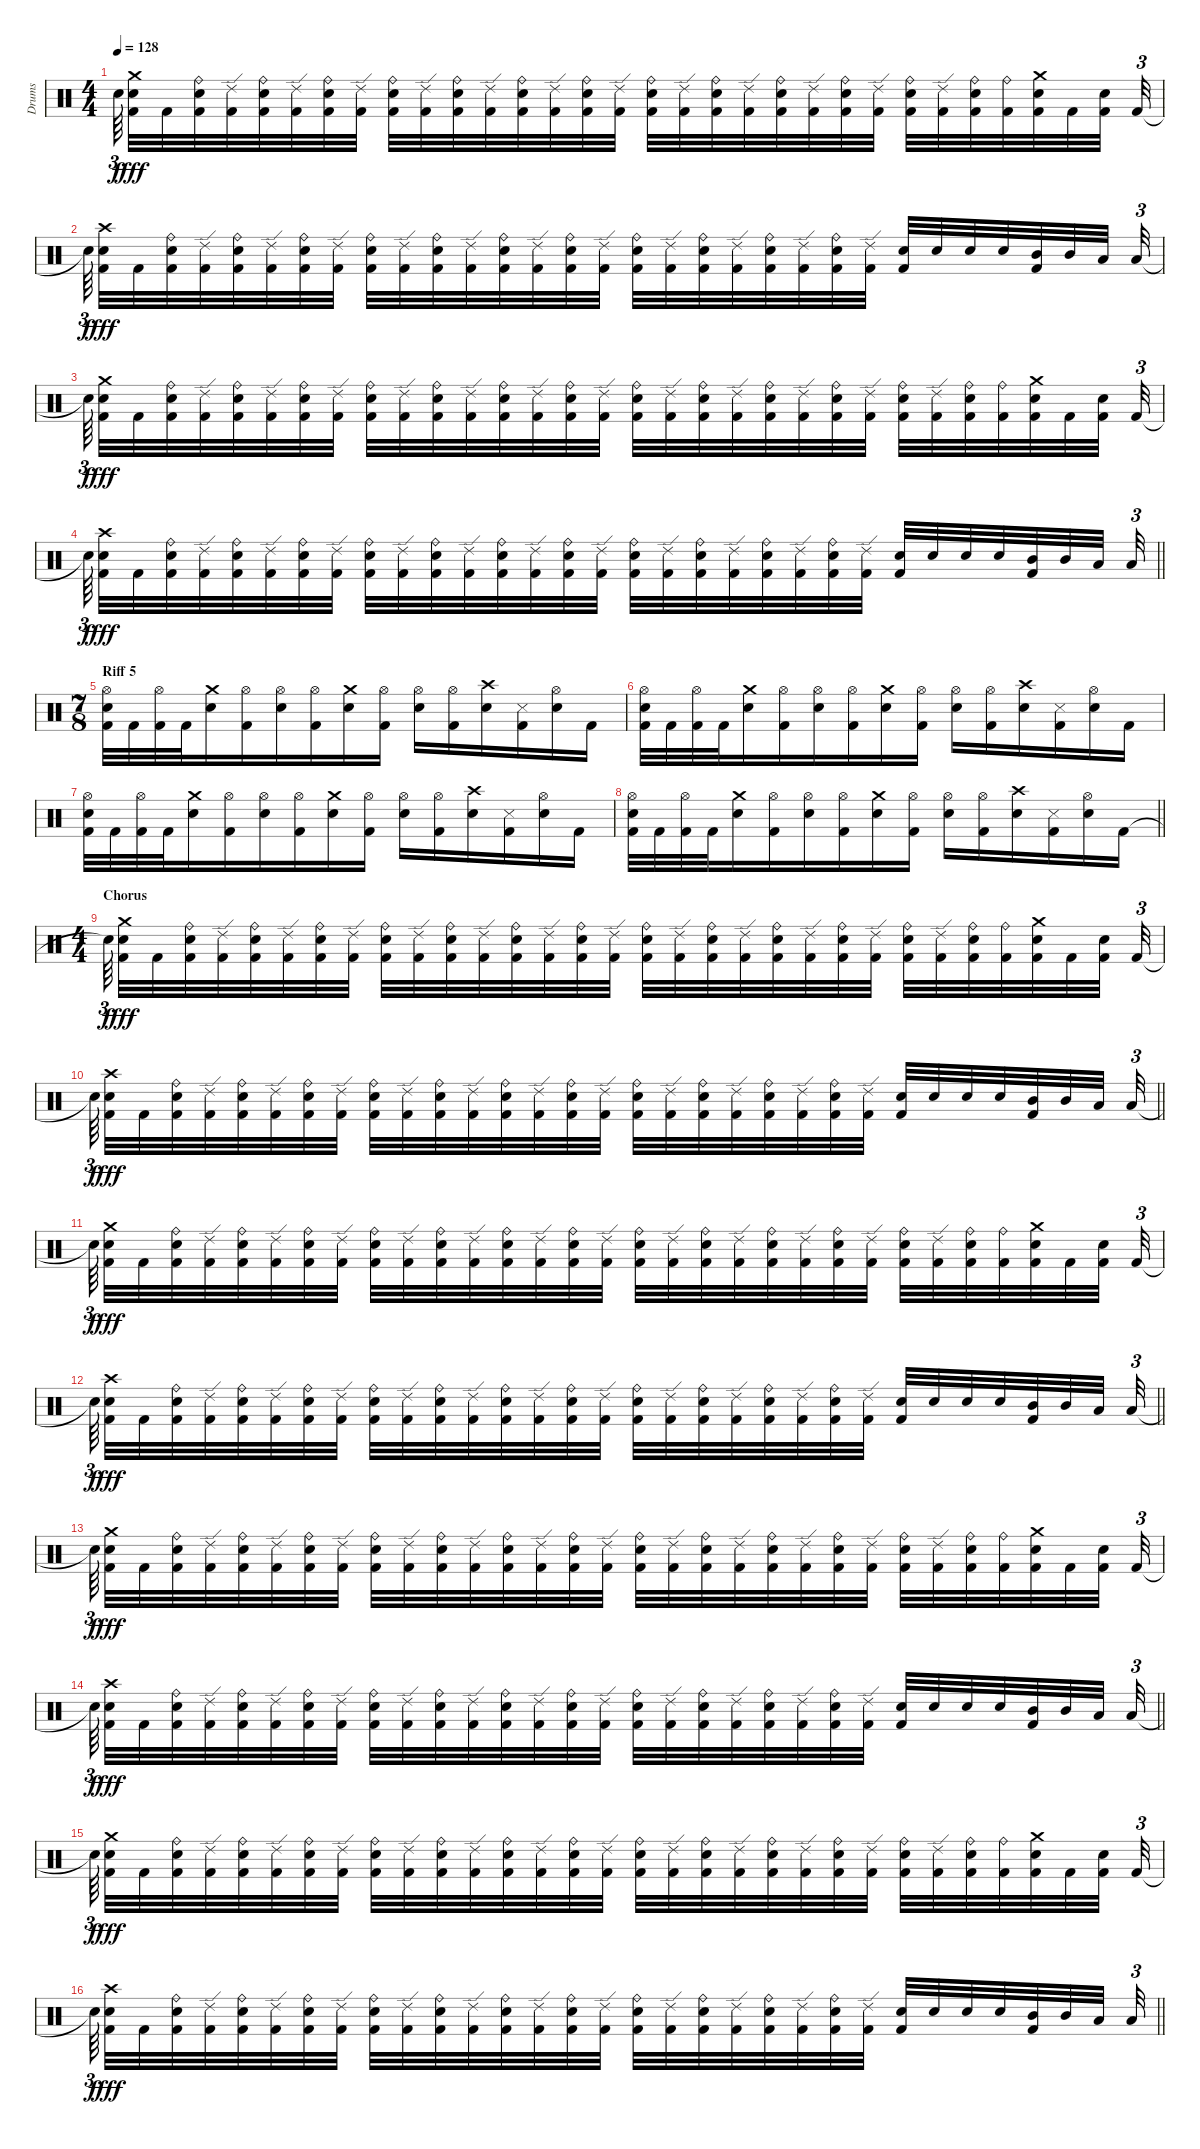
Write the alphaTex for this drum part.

\track ("Drums" "Drums") {instrument percussion}
\staff {score}
\articulation defaults
\ts (4 4)
\tempo 128
\clef neutral
\ks c "Snare (hit)"{t}.64{tu (3 2) dy f beam splitsecondary}
("Kick (hit) 2" "Snare (hit) 2" "Crash medium (hit)").32{dy fff} "Kick (hit) 2".32 ("Kick (hit) 2" "Snare (hit) 2" "Ride (bell)").32 ("Kick (hit) 2" "Ride (edge) 2").32 ("Kick (hit) 2" "Snare (hit) 2" "Ride (bell)").32 ("Kick (hit) 2" "Ride (edge) 2").32 ("Kick (hit) 2" "Snare (hit) 2" "Ride (bell)").32 ("Kick (hit) 2" "Ride (edge) 2").32 ("Kick (hit) 2" "Snare (hit) 2" "Ride (bell)").32 ("Kick (hit) 2" "Ride (edge) 2").32 ("Kick (hit) 2" "Snare (hit) 2" "Ride (bell)").32 ("Kick (hit) 2" "Ride (edge) 2").32 ("Kick (hit) 2" "Snare (hit) 2" "Ride (bell)").32 ("Kick (hit) 2" "Ride (edge) 2").32 ("Kick (hit) 2" "Snare (hit) 2" "Ride (bell)").32 ("Kick (hit) 2" "Ride (edge) 2").32 ("Kick (hit) 2" "Snare (hit) 2" "Ride (bell)").32 ("Kick (hit) 2" "Ride (edge) 2").32 ("Kick (hit) 2" "Snare (hit) 2" "Ride (bell)").32 ("Kick (hit) 2" "Ride (edge) 2").32 ("Kick (hit) 2" "Snare (hit) 2" "Ride (bell)").32 ("Kick (hit) 2" "Ride (edge) 2").32 ("Kick (hit) 2" "Snare (hit) 2" "Ride (bell)").32 ("Kick (hit) 2" "Ride (edge) 2").32 ("Kick (hit) 2" "Snare (hit) 2" "Ride (bell)").32 ("Kick (hit) 2" "Ride (edge) 2").32 ("Kick (hit) 2" "Snare (hit) 2" "Ride (bell)").32 ("Kick (hit) 2" "Ride (bell)").32 ("Kick (hit) 2" "Snare (hit) 2" "Crash medium (hit)").32 "Kick (hit) 2".32 ("Kick (hit) 2" "Snare (hit) 2").32{beam splitsecondary} "Kick (hit) 2".32{tu (3 2)} |
"Snare (hit)"{t}.64{tu (3 2) dy f beam splitsecondary} ("Kick (hit) 2" "Snare (hit) 2" "Crash high (hit)").32{dy fff} "Kick (hit) 2".32 ("Kick (hit) 2" "Snare (hit) 2" "Ride (bell)").32 ("Kick (hit) 2" "Ride (edge) 2").32 ("Kick (hit) 2" "Snare (hit) 2" "Ride (bell)").32 ("Kick (hit) 2" "Ride (edge) 2").32 ("Kick (hit) 2" "Snare (hit) 2" "Ride (bell)").32 ("Kick (hit) 2" "Ride (edge) 2").32 ("Kick (hit) 2" "Snare (hit) 2" "Ride (bell)").32 ("Kick (hit) 2" "Ride (edge) 2").32 ("Kick (hit) 2" "Snare (hit) 2" "Ride (bell)").32 ("Kick (hit) 2" "Ride (edge) 2").32 ("Kick (hit) 2" "Snare (hit) 2" "Ride (bell)").32 ("Kick (hit) 2" "Ride (edge) 2").32 ("Kick (hit) 2" "Snare (hit) 2" "Ride (bell)").32 ("Kick (hit) 2" "Ride (edge) 2").32 ("Kick (hit) 2" "Snare (hit) 2" "Ride (bell)").32 ("Kick (hit) 2" "Ride (edge) 2").32 ("Kick (hit) 2" "Snare (hit) 2" "Ride (bell)").32 ("Kick (hit) 2" "Ride (edge) 2").32 ("Kick (hit) 2" "Snare (hit) 2" "Ride (bell)").32 ("Kick (hit) 2" "Ride (edge) 2").32 ("Kick (hit) 2" "Snare (hit) 2" "Ride (bell)").32 ("Kick (hit) 2" "Ride (edge) 2").32 ("Kick (hit) 2" "Snare (hit) 2").32 "Snare (hit) 2".32 "Snare (hit) 2".32 "Snare (hit) 2".32 ("Kick (hit) 2" "Mid Tom (hit)").32 "Mid Tom (hit)".32 "Low Tom (hit)".32{beam splitsecondary} "Low Tom (hit)".32{tu (3 2)} |
"Snare (hit)"{t}.64{tu (3 2) dy f beam splitsecondary} ("Kick (hit) 2" "Snare (hit) 2" "Crash medium (hit)").32{dy fff} "Kick (hit) 2".32 ("Kick (hit) 2" "Snare (hit) 2" "Ride (bell)").32 ("Kick (hit) 2" "Ride (edge) 2").32 ("Kick (hit) 2" "Snare (hit) 2" "Ride (bell)").32 ("Kick (hit) 2" "Ride (edge) 2").32 ("Kick (hit) 2" "Snare (hit) 2" "Ride (bell)").32 ("Kick (hit) 2" "Ride (edge) 2").32 ("Kick (hit) 2" "Snare (hit) 2" "Ride (bell)").32 ("Kick (hit) 2" "Ride (edge) 2").32 ("Kick (hit) 2" "Snare (hit) 2" "Ride (bell)").32 ("Kick (hit) 2" "Ride (edge) 2").32 ("Kick (hit) 2" "Snare (hit) 2" "Ride (bell)").32 ("Kick (hit) 2" "Ride (edge) 2").32 ("Kick (hit) 2" "Snare (hit) 2" "Ride (bell)").32 ("Kick (hit) 2" "Ride (edge) 2").32 ("Kick (hit) 2" "Snare (hit) 2" "Ride (bell)").32 ("Kick (hit) 2" "Ride (edge) 2").32 ("Kick (hit) 2" "Snare (hit) 2" "Ride (bell)").32 ("Kick (hit) 2" "Ride (edge) 2").32 ("Kick (hit) 2" "Snare (hit) 2" "Ride (bell)").32 ("Kick (hit) 2" "Ride (edge) 2").32 ("Kick (hit) 2" "Snare (hit) 2" "Ride (bell)").32 ("Kick (hit) 2" "Ride (edge) 2").32 ("Kick (hit) 2" "Snare (hit) 2" "Ride (bell)").32 ("Kick (hit) 2" "Ride (edge) 2").32 ("Kick (hit) 2" "Snare (hit) 2" "Ride (bell)").32 ("Kick (hit) 2" "Ride (bell)").32 ("Kick (hit) 2" "Snare (hit) 2" "Crash medium (hit)").32 "Kick (hit) 2".32 ("Kick (hit) 2" "Snare (hit) 2").32{beam splitsecondary} "Kick (hit) 2".32{tu (3 2)} |
\barLineRight lightlight "Snare (hit)"{t}.64{tu (3 2) dy f beam splitsecondary}
("Kick (hit) 2" "Snare (hit) 2" "Crash high (hit)").32{dy fff} "Kick (hit) 2".32 ("Kick (hit) 2" "Snare (hit) 2" "Ride (bell)").32 ("Kick (hit) 2" "Ride (edge) 2").32 ("Kick (hit) 2" "Snare (hit) 2" "Ride (bell)").32 ("Kick (hit) 2" "Ride (edge) 2").32 ("Kick (hit) 2" "Snare (hit) 2" "Ride (bell)").32 ("Kick (hit) 2" "Ride (edge) 2").32 ("Kick (hit) 2" "Snare (hit) 2" "Ride (bell)").32 ("Kick (hit) 2" "Ride (edge) 2").32 ("Kick (hit) 2" "Snare (hit) 2" "Ride (bell)").32 ("Kick (hit) 2" "Ride (edge) 2").32 ("Kick (hit) 2" "Snare (hit) 2" "Ride (bell)").32 ("Kick (hit) 2" "Ride (edge) 2").32 ("Kick (hit) 2" "Snare (hit) 2" "Ride (bell)").32 ("Kick (hit) 2" "Ride (edge) 2").32 ("Kick (hit) 2" "Snare (hit) 2" "Ride (bell)").32 ("Kick (hit) 2" "Ride (edge) 2").32 ("Kick (hit) 2" "Snare (hit) 2" "Ride (bell)").32 ("Kick (hit) 2" "Ride (edge) 2").32 ("Kick (hit) 2" "Snare (hit) 2" "Ride (bell)").32 ("Kick (hit) 2" "Ride (edge) 2").32 ("Kick (hit) 2" "Snare (hit) 2" "Ride (bell)").32 ("Kick (hit) 2" "Ride (edge) 2").32 ("Kick (hit) 2" "Snare (hit) 2").32 "Snare (hit) 2".32 "Snare (hit) 2".32 "Snare (hit) 2".32 ("Kick (hit) 2" "Mid Tom (hit)").32 "Mid Tom (hit)".32 "Low Tom (hit)".32{beam splitsecondary} "Low Tom (hit)".32{tu (3 2)} |
\ts (7 8)
\section ("" "Riff 5")
("Kick (hit) 2" "Snare (hit) 2" "Hi-Hat (open)").32 "Kick (hit) 2".32 ("Kick (hit) 2" "Hi-Hat (open)").32 "Kick (hit) 2".32 ("Snare (hit) 2" "Crash medium (hit)").16 ("Kick (hit) 2" "Hi-Hat (open)").16 ("Snare (hit) 2" "Hi-Hat (open)").16 ("Kick (hit) 2" "Hi-Hat (open)").16 ("Snare (hit) 2" "Crash medium (hit)").16 ("Kick (hit) 2" "Hi-Hat (open)").16 ("Snare (hit) 2" "Hi-Hat (open)").16 ("Kick (hit) 2" "Hi-Hat (open)").16 ("Snare (hit) 2" "Crash high (hit)").16 ("Kick (hit) 2" "Snare (side stick) 3").16 ("Snare (hit) 2" "Hi-Hat (open)").16 "Kick (hit) 2".16 |
("Kick (hit) 2" "Snare (hit) 2" "Hi-Hat (open)").32 "Kick (hit) 2".32 ("Kick (hit) 2" "Hi-Hat (open)").32 "Kick (hit) 2".32 ("Snare (hit) 2" "Crash medium (hit)").16 ("Kick (hit) 2" "Hi-Hat (open)").16 ("Snare (hit) 2" "Hi-Hat (open)").16 ("Kick (hit) 2" "Hi-Hat (open)").16 ("Snare (hit) 2" "Crash medium (hit)").16 ("Kick (hit) 2" "Hi-Hat (open)").16 ("Snare (hit) 2" "Hi-Hat (open)").16 ("Kick (hit) 2" "Hi-Hat (open)").16 ("Snare (hit) 2" "Crash high (hit)").16 ("Kick (hit) 2" "Snare (side stick) 3").16 ("Snare (hit) 2" "Hi-Hat (open)").16 "Kick (hit) 2".16 |
("Kick (hit) 2" "Snare (hit) 2" "Hi-Hat (open)").32 "Kick (hit) 2".32 ("Kick (hit) 2" "Hi-Hat (open)").32 "Kick (hit) 2".32 ("Snare (hit) 2" "Crash medium (hit)").16 ("Kick (hit) 2" "Hi-Hat (open)").16 ("Snare (hit) 2" "Hi-Hat (open)").16 ("Kick (hit) 2" "Hi-Hat (open)").16 ("Snare (hit) 2" "Crash medium (hit)").16 ("Kick (hit) 2" "Hi-Hat (open)").16 ("Snare (hit) 2" "Hi-Hat (open)").16 ("Kick (hit) 2" "Hi-Hat (open)").16 ("Snare (hit) 2" "Crash high (hit)").16 ("Kick (hit) 2" "Snare (side stick) 3").16 ("Snare (hit) 2" "Hi-Hat (open)").16 "Kick (hit) 2".16 |
\barLineRight lightlight
("Kick (hit) 2" "Snare (hit) 2" "Hi-Hat (open)").32 "Kick (hit) 2".32 ("Kick (hit) 2" "Hi-Hat (open)").32 "Kick (hit) 2".32 ("Snare (hit) 2" "Crash medium (hit)").16 ("Kick (hit) 2" "Hi-Hat (open)").16 ("Snare (hit) 2" "Hi-Hat (open)").16 ("Kick (hit) 2" "Hi-Hat (open)").16 ("Snare (hit) 2" "Crash medium (hit)").16 ("Kick (hit) 2" "Hi-Hat (open)").16 ("Snare (hit) 2" "Hi-Hat (open)").16 ("Kick (hit) 2" "Hi-Hat (open)").16 ("Snare (hit) 2" "Crash high (hit)").16 ("Kick (hit) 2" "Snare (side stick) 3").16 ("Snare (hit) 2" "Hi-Hat (open)").16 "Kick (hit) 2".16 |
\ts (4 4)
\section ("" "Chorus")
"Snare (hit)"{t}.64{tu (3 2) dy f beam splitsecondary} ("Kick (hit) 2" "Snare (hit) 2" "Crash medium (hit)").32{dy fff} "Kick (hit) 2".32 ("Kick (hit) 2" "Snare (hit) 2" "Ride (bell)").32 ("Kick (hit) 2" "Ride (edge) 2").32 ("Kick (hit) 2" "Snare (hit) 2" "Ride (bell)").32 ("Kick (hit) 2" "Ride (edge) 2").32 ("Kick (hit) 2" "Snare (hit) 2" "Ride (bell)").32 ("Kick (hit) 2" "Ride (edge) 2").32 ("Kick (hit) 2" "Snare (hit) 2" "Ride (bell)").32 ("Kick (hit) 2" "Ride (edge) 2").32 ("Kick (hit) 2" "Snare (hit) 2" "Ride (bell)").32 ("Kick (hit) 2" "Ride (edge) 2").32 ("Kick (hit) 2" "Snare (hit) 2" "Ride (bell)").32 ("Kick (hit) 2" "Ride (edge) 2").32 ("Kick (hit) 2" "Snare (hit) 2" "Ride (bell)").32 ("Kick (hit) 2" "Ride (edge) 2").32 ("Kick (hit) 2" "Snare (hit) 2" "Ride (bell)").32 ("Kick (hit) 2" "Ride (edge) 2").32 ("Kick (hit) 2" "Snare (hit) 2" "Ride (bell)").32 ("Kick (hit) 2" "Ride (edge) 2").32 ("Kick (hit) 2" "Snare (hit) 2" "Ride (bell)").32 ("Kick (hit) 2" "Ride (edge) 2").32 ("Kick (hit) 2" "Snare (hit) 2" "Ride (bell)").32 ("Kick (hit) 2" "Ride (edge) 2").32 ("Kick (hit) 2" "Snare (hit) 2" "Ride (bell)").32 ("Kick (hit) 2" "Ride (edge) 2").32 ("Kick (hit) 2" "Snare (hit) 2" "Ride (bell)").32 ("Kick (hit) 2" "Ride (bell)").32 ("Kick (hit) 2" "Snare (hit) 2" "Crash medium (hit)").32 "Kick (hit) 2".32 ("Kick (hit) 2" "Snare (hit) 2").32{beam splitsecondary} "Kick (hit) 2".32{tu (3 2)} |
\barLineRight lightlight "Snare (hit)"{t}.64{tu (3 2) dy f beam splitsecondary}
("Kick (hit) 2" "Snare (hit) 2" "Crash high (hit)").32{dy fff} "Kick (hit) 2".32 ("Kick (hit) 2" "Snare (hit) 2" "Ride (bell)").32 ("Kick (hit) 2" "Ride (edge) 2").32 ("Kick (hit) 2" "Snare (hit) 2" "Ride (bell)").32 ("Kick (hit) 2" "Ride (edge) 2").32 ("Kick (hit) 2" "Snare (hit) 2" "Ride (bell)").32 ("Kick (hit) 2" "Ride (edge) 2").32 ("Kick (hit) 2" "Snare (hit) 2" "Ride (bell)").32 ("Kick (hit) 2" "Ride (edge) 2").32 ("Kick (hit) 2" "Snare (hit) 2" "Ride (bell)").32 ("Kick (hit) 2" "Ride (edge) 2").32 ("Kick (hit) 2" "Snare (hit) 2" "Ride (bell)").32 ("Kick (hit) 2" "Ride (edge) 2").32 ("Kick (hit) 2" "Snare (hit) 2" "Ride (bell)").32 ("Kick (hit) 2" "Ride (edge) 2").32 ("Kick (hit) 2" "Snare (hit) 2" "Ride (bell)").32 ("Kick (hit) 2" "Ride (edge) 2").32 ("Kick (hit) 2" "Snare (hit) 2" "Ride (bell)").32 ("Kick (hit) 2" "Ride (edge) 2").32 ("Kick (hit) 2" "Snare (hit) 2" "Ride (bell)").32 ("Kick (hit) 2" "Ride (edge) 2").32 ("Kick (hit) 2" "Snare (hit) 2" "Ride (bell)").32 ("Kick (hit) 2" "Ride (edge) 2").32 ("Kick (hit) 2" "Snare (hit) 2").32 "Snare (hit) 2".32 "Snare (hit) 2".32 "Snare (hit) 2".32 ("Kick (hit) 2" "Mid Tom (hit)").32 "Mid Tom (hit)".32 "Low Tom (hit)".32{beam splitsecondary} "Low Tom (hit)".32{tu (3 2)} |
"Snare (hit)"{t}.64{tu (3 2) dy f beam splitsecondary} ("Kick (hit) 2" "Snare (hit) 2" "Crash medium (hit)").32{dy fff} "Kick (hit) 2".32 ("Kick (hit) 2" "Snare (hit) 2" "Ride (bell)").32 ("Kick (hit) 2" "Ride (edge) 2").32 ("Kick (hit) 2" "Snare (hit) 2" "Ride (bell)").32 ("Kick (hit) 2" "Ride (edge) 2").32 ("Kick (hit) 2" "Snare (hit) 2" "Ride (bell)").32 ("Kick (hit) 2" "Ride (edge) 2").32 ("Kick (hit) 2" "Snare (hit) 2" "Ride (bell)").32 ("Kick (hit) 2" "Ride (edge) 2").32 ("Kick (hit) 2" "Snare (hit) 2" "Ride (bell)").32 ("Kick (hit) 2" "Ride (edge) 2").32 ("Kick (hit) 2" "Snare (hit) 2" "Ride (bell)").32 ("Kick (hit) 2" "Ride (edge) 2").32 ("Kick (hit) 2" "Snare (hit) 2" "Ride (bell)").32 ("Kick (hit) 2" "Ride (edge) 2").32 ("Kick (hit) 2" "Snare (hit) 2" "Ride (bell)").32 ("Kick (hit) 2" "Ride (edge) 2").32 ("Kick (hit) 2" "Snare (hit) 2" "Ride (bell)").32 ("Kick (hit) 2" "Ride (edge) 2").32 ("Kick (hit) 2" "Snare (hit) 2" "Ride (bell)").32 ("Kick (hit) 2" "Ride (edge) 2").32 ("Kick (hit) 2" "Snare (hit) 2" "Ride (bell)").32 ("Kick (hit) 2" "Ride (edge) 2").32 ("Kick (hit) 2" "Snare (hit) 2" "Ride (bell)").32 ("Kick (hit) 2" "Ride (edge) 2").32 ("Kick (hit) 2" "Snare (hit) 2" "Ride (bell)").32 ("Kick (hit) 2" "Ride (bell)").32 ("Kick (hit) 2" "Snare (hit) 2" "Crash medium (hit)").32 "Kick (hit) 2".32 ("Kick (hit) 2" "Snare (hit) 2").32{beam splitsecondary} "Kick (hit) 2".32{tu (3 2)} |
\barLineRight lightlight "Snare (hit)"{t}.64{tu (3 2) dy f beam splitsecondary}
("Kick (hit) 2" "Snare (hit) 2" "Crash high (hit)").32{dy fff} "Kick (hit) 2".32 ("Kick (hit) 2" "Snare (hit) 2" "Ride (bell)").32 ("Kick (hit) 2" "Ride (edge) 2").32 ("Kick (hit) 2" "Snare (hit) 2" "Ride (bell)").32 ("Kick (hit) 2" "Ride (edge) 2").32 ("Kick (hit) 2" "Snare (hit) 2" "Ride (bell)").32 ("Kick (hit) 2" "Ride (edge) 2").32 ("Kick (hit) 2" "Snare (hit) 2" "Ride (bell)").32 ("Kick (hit) 2" "Ride (edge) 2").32 ("Kick (hit) 2" "Snare (hit) 2" "Ride (bell)").32 ("Kick (hit) 2" "Ride (edge) 2").32 ("Kick (hit) 2" "Snare (hit) 2" "Ride (bell)").32 ("Kick (hit) 2" "Ride (edge) 2").32 ("Kick (hit) 2" "Snare (hit) 2" "Ride (bell)").32 ("Kick (hit) 2" "Ride (edge) 2").32 ("Kick (hit) 2" "Snare (hit) 2" "Ride (bell)").32 ("Kick (hit) 2" "Ride (edge) 2").32 ("Kick (hit) 2" "Snare (hit) 2" "Ride (bell)").32 ("Kick (hit) 2" "Ride (edge) 2").32 ("Kick (hit) 2" "Snare (hit) 2" "Ride (bell)").32 ("Kick (hit) 2" "Ride (edge) 2").32 ("Kick (hit) 2" "Snare (hit) 2" "Ride (bell)").32 ("Kick (hit) 2" "Ride (edge) 2").32 ("Kick (hit) 2" "Snare (hit) 2").32 "Snare (hit) 2".32 "Snare (hit) 2".32 "Snare (hit) 2".32 ("Kick (hit) 2" "Mid Tom (hit)").32 "Mid Tom (hit)".32 "Low Tom (hit)".32{beam splitsecondary} "Low Tom (hit)".32{tu (3 2)} |
"Snare (hit)"{t}.64{tu (3 2) dy f beam splitsecondary} ("Kick (hit) 2" "Snare (hit) 2" "Crash medium (hit)").32{dy fff} "Kick (hit) 2".32 ("Kick (hit) 2" "Snare (hit) 2" "Ride (bell)").32 ("Kick (hit) 2" "Ride (edge) 2").32 ("Kick (hit) 2" "Snare (hit) 2" "Ride (bell)").32 ("Kick (hit) 2" "Ride (edge) 2").32 ("Kick (hit) 2" "Snare (hit) 2" "Ride (bell)").32 ("Kick (hit) 2" "Ride (edge) 2").32 ("Kick (hit) 2" "Snare (hit) 2" "Ride (bell)").32 ("Kick (hit) 2" "Ride (edge) 2").32 ("Kick (hit) 2" "Snare (hit) 2" "Ride (bell)").32 ("Kick (hit) 2" "Ride (edge) 2").32 ("Kick (hit) 2" "Snare (hit) 2" "Ride (bell)").32 ("Kick (hit) 2" "Ride (edge) 2").32 ("Kick (hit) 2" "Snare (hit) 2" "Ride (bell)").32 ("Kick (hit) 2" "Ride (edge) 2").32 ("Kick (hit) 2" "Snare (hit) 2" "Ride (bell)").32 ("Kick (hit) 2" "Ride (edge) 2").32 ("Kick (hit) 2" "Snare (hit) 2" "Ride (bell)").32 ("Kick (hit) 2" "Ride (edge) 2").32 ("Kick (hit) 2" "Snare (hit) 2" "Ride (bell)").32 ("Kick (hit) 2" "Ride (edge) 2").32 ("Kick (hit) 2" "Snare (hit) 2" "Ride (bell)").32 ("Kick (hit) 2" "Ride (edge) 2").32 ("Kick (hit) 2" "Snare (hit) 2" "Ride (bell)").32 ("Kick (hit) 2" "Ride (edge) 2").32 ("Kick (hit) 2" "Snare (hit) 2" "Ride (bell)").32 ("Kick (hit) 2" "Ride (bell)").32 ("Kick (hit) 2" "Snare (hit) 2" "Crash medium (hit)").32 "Kick (hit) 2".32 ("Kick (hit) 2" "Snare (hit) 2").32{beam splitsecondary} "Kick (hit) 2".32{tu (3 2)} |
\barLineRight lightlight "Snare (hit)"{t}.64{tu (3 2) dy f beam splitsecondary}
("Kick (hit) 2" "Snare (hit) 2" "Crash high (hit)").32{dy fff} "Kick (hit) 2".32 ("Kick (hit) 2" "Snare (hit) 2" "Ride (bell)").32 ("Kick (hit) 2" "Ride (edge) 2").32 ("Kick (hit) 2" "Snare (hit) 2" "Ride (bell)").32 ("Kick (hit) 2" "Ride (edge) 2").32 ("Kick (hit) 2" "Snare (hit) 2" "Ride (bell)").32 ("Kick (hit) 2" "Ride (edge) 2").32 ("Kick (hit) 2" "Snare (hit) 2" "Ride (bell)").32 ("Kick (hit) 2" "Ride (edge) 2").32 ("Kick (hit) 2" "Snare (hit) 2" "Ride (bell)").32 ("Kick (hit) 2" "Ride (edge) 2").32 ("Kick (hit) 2" "Snare (hit) 2" "Ride (bell)").32 ("Kick (hit) 2" "Ride (edge) 2").32 ("Kick (hit) 2" "Snare (hit) 2" "Ride (bell)").32 ("Kick (hit) 2" "Ride (edge) 2").32 ("Kick (hit) 2" "Snare (hit) 2" "Ride (bell)").32 ("Kick (hit) 2" "Ride (edge) 2").32 ("Kick (hit) 2" "Snare (hit) 2" "Ride (bell)").32 ("Kick (hit) 2" "Ride (edge) 2").32 ("Kick (hit) 2" "Snare (hit) 2" "Ride (bell)").32 ("Kick (hit) 2" "Ride (edge) 2").32 ("Kick (hit) 2" "Snare (hit) 2" "Ride (bell)").32 ("Kick (hit) 2" "Ride (edge) 2").32 ("Kick (hit) 2" "Snare (hit) 2").32 "Snare (hit) 2".32 "Snare (hit) 2".32 "Snare (hit) 2".32 ("Kick (hit) 2" "Mid Tom (hit)").32 "Mid Tom (hit)".32 "Low Tom (hit)".32{beam splitsecondary} "Low Tom (hit)".32{tu (3 2)} |
"Snare (hit)"{t}.64{tu (3 2) dy f beam splitsecondary} ("Kick (hit) 2" "Snare (hit) 2" "Crash medium (hit)").32{dy fff} "Kick (hit) 2".32 ("Kick (hit) 2" "Snare (hit) 2" "Ride (bell)").32 ("Kick (hit) 2" "Ride (edge) 2").32 ("Kick (hit) 2" "Snare (hit) 2" "Ride (bell)").32 ("Kick (hit) 2" "Ride (edge) 2").32 ("Kick (hit) 2" "Snare (hit) 2" "Ride (bell)").32 ("Kick (hit) 2" "Ride (edge) 2").32 ("Kick (hit) 2" "Snare (hit) 2" "Ride (bell)").32 ("Kick (hit) 2" "Ride (edge) 2").32 ("Kick (hit) 2" "Snare (hit) 2" "Ride (bell)").32 ("Kick (hit) 2" "Ride (edge) 2").32 ("Kick (hit) 2" "Snare (hit) 2" "Ride (bell)").32 ("Kick (hit) 2" "Ride (edge) 2").32 ("Kick (hit) 2" "Snare (hit) 2" "Ride (bell)").32 ("Kick (hit) 2" "Ride (edge) 2").32 ("Kick (hit) 2" "Snare (hit) 2" "Ride (bell)").32 ("Kick (hit) 2" "Ride (edge) 2").32 ("Kick (hit) 2" "Snare (hit) 2" "Ride (bell)").32 ("Kick (hit) 2" "Ride (edge) 2").32 ("Kick (hit) 2" "Snare (hit) 2" "Ride (bell)").32 ("Kick (hit) 2" "Ride (edge) 2").32 ("Kick (hit) 2" "Snare (hit) 2" "Ride (bell)").32 ("Kick (hit) 2" "Ride (edge) 2").32 ("Kick (hit) 2" "Snare (hit) 2" "Ride (bell)").32 ("Kick (hit) 2" "Ride (edge) 2").32 ("Kick (hit) 2" "Snare (hit) 2" "Ride (bell)").32 ("Kick (hit) 2" "Ride (bell)").32 ("Kick (hit) 2" "Snare (hit) 2" "Crash medium (hit)").32 "Kick (hit) 2".32 ("Kick (hit) 2" "Snare (hit) 2").32{beam splitsecondary} "Kick (hit) 2".32{tu (3 2)} |
\barLineRight lightlight "Snare (hit)"{t}.64{tu (3 2) dy f beam splitsecondary}
("Kick (hit) 2" "Snare (hit) 2" "Crash high (hit)").32{dy fff} "Kick (hit) 2".32 ("Kick (hit) 2" "Snare (hit) 2" "Ride (bell)").32 ("Kick (hit) 2" "Ride (edge) 2").32 ("Kick (hit) 2" "Snare (hit) 2" "Ride (bell)").32 ("Kick (hit) 2" "Ride (edge) 2").32 ("Kick (hit) 2" "Snare (hit) 2" "Ride (bell)").32 ("Kick (hit) 2" "Ride (edge) 2").32 ("Kick (hit) 2" "Snare (hit) 2" "Ride (bell)").32 ("Kick (hit) 2" "Ride (edge) 2").32 ("Kick (hit) 2" "Snare (hit) 2" "Ride (bell)").32 ("Kick (hit) 2" "Ride (edge) 2").32 ("Kick (hit) 2" "Snare (hit) 2" "Ride (bell)").32 ("Kick (hit) 2" "Ride (edge) 2").32 ("Kick (hit) 2" "Snare (hit) 2" "Ride (bell)").32 ("Kick (hit) 2" "Ride (edge) 2").32 ("Kick (hit) 2" "Snare (hit) 2" "Ride (bell)").32 ("Kick (hit) 2" "Ride (edge) 2").32 ("Kick (hit) 2" "Snare (hit) 2" "Ride (bell)").32 ("Kick (hit) 2" "Ride (edge) 2").32 ("Kick (hit) 2" "Snare (hit) 2" "Ride (bell)").32 ("Kick (hit) 2" "Ride (edge) 2").32 ("Kick (hit) 2" "Snare (hit) 2" "Ride (bell)").32 ("Kick (hit) 2" "Ride (edge) 2").32 ("Kick (hit) 2" "Snare (hit) 2").32 "Snare (hit) 2".32 "Snare (hit) 2".32 "Snare (hit) 2".32 ("Kick (hit) 2" "Mid Tom (hit)").32 "Mid Tom (hit)".32 "Low Tom (hit)".32{beam splitsecondary} "Low Tom (hit)".32{tu (3 2)}
